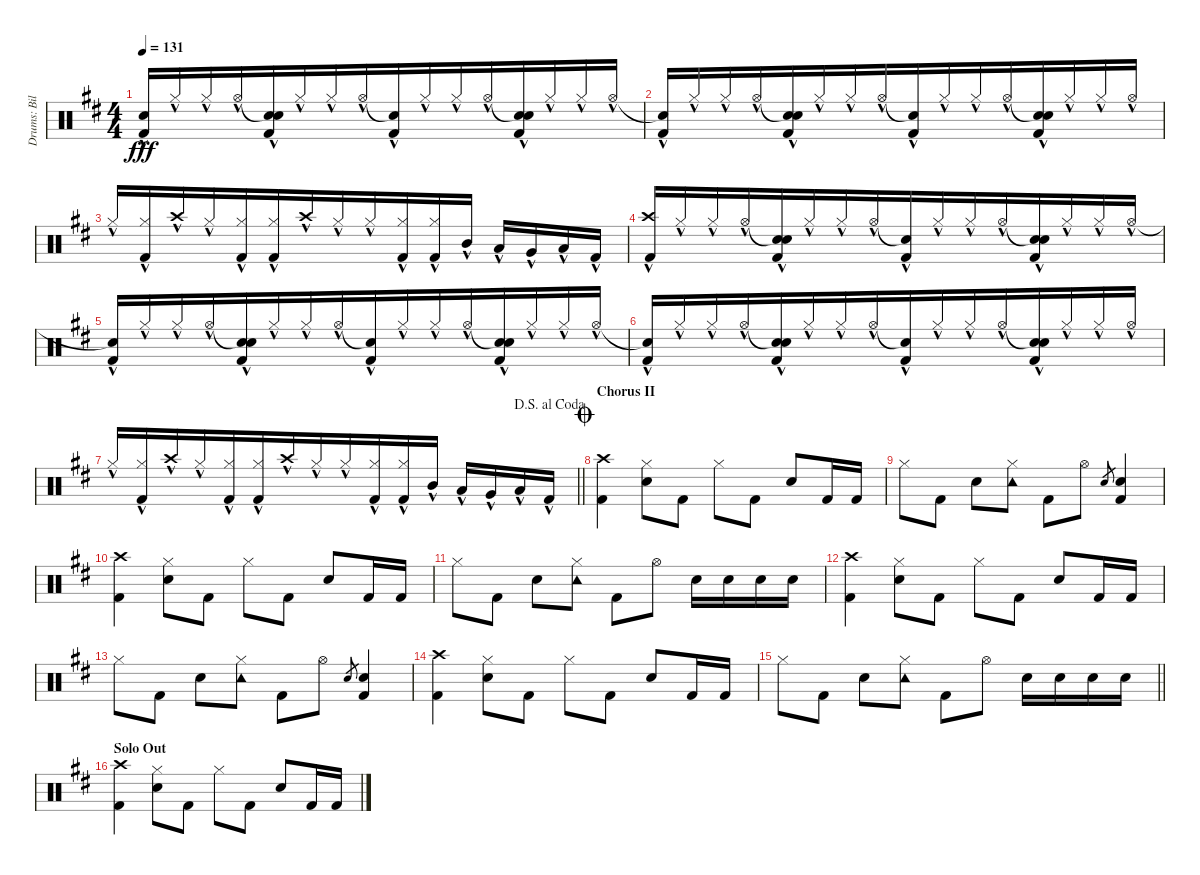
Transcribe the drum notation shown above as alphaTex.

\track ("Drums: Bill" "Drums: Bil") {instrument percussion}
\staff {score}
\articulation defaults
\ts (4 4)
\tempo 131
\clef neutral
\ks d
("Snare (hit)"{t} "Kick (hit) 2"{hac}).16{dy fff beam Up beam merge} "Hi-Hat (closed)"{hac}.16{beam Up beam merge} "Hi-Hat (closed)"{hac}.16{beam Up beam merge} "Hi-Hat (open)"{hac}.16{beam Up beam merge} ("Snare (hit)"{t} "Electric Snare (hit)"{hac} "Kick (hit) 2"{hac}).16{beam Up beam merge} "Hi-Hat (closed)"{hac}.16{beam Up beam merge} "Hi-Hat (closed)"{hac}.16{beam Up beam merge} "Hi-Hat (open)"{hac}.16{beam Up beam merge} ("Snare (hit)"{t} "Kick (hit) 2"{hac}).16{beam Up beam merge} "Hi-Hat (closed)"{hac}.16{beam Up beam merge} "Hi-Hat (closed)"{hac}.16{beam Up beam merge} "Hi-Hat (open)"{hac}.16{beam Up beam merge} ("Snare (hit)"{t} "Electric Snare (hit)" "Kick (hit) 2"{hac}).16{beam Up beam merge} "Hi-Hat (closed)"{hac}.16{beam Up beam merge} "Hi-Hat (closed)"{hac}.16{beam Up beam merge} "Hi-Hat (open)"{hac}.16{beam Up} |
("Snare (hit)"{t} "Kick (hit) 2"{hac}).16{beam Up beam merge} "Hi-Hat (closed)"{hac}.16{beam Up beam merge} "Hi-Hat (closed)"{hac}.16{beam Up beam merge} "Hi-Hat (open)"{hac}.16{beam Up beam merge} ("Snare (hit)"{t} "Electric Snare (hit)"{hac} "Kick (hit) 2"{hac}).16{beam Up beam merge} "Hi-Hat (closed)"{hac}.16{beam Up beam merge} "Hi-Hat (closed)"{hac}.16{beam Up beam merge} "Hi-Hat (open)"{hac}.16{beam Up beam merge} ("Snare (hit)"{t} "Kick (hit) 2"{hac}).16{beam Up beam merge} "Hi-Hat (closed)"{hac}.16{beam Up beam merge} "Hi-Hat (closed)"{hac}.16{beam Up beam merge} "Hi-Hat (open)"{hac}.16{beam Up beam merge} ("Snare (hit)"{t} "Electric Snare (hit)" "Kick (hit) 2"{hac}).16{beam Up beam merge} "Hi-Hat (closed)"{hac}.16{beam Up beam merge} "Hi-Hat (closed)"{hac}.16{beam Up beam merge} "Hi-Hat (open)"{hac}.16{beam Up} |
"Hi-Hat (closed)"{hac}.16{beam Up beam merge} ("Hi-Hat (closed)"{hac} "Kick (hit) 2"{hac}).16{beam Up} "Crash high (hit)"{hac}.16{beam merge} "Hi-Hat (closed)"{hac}.16{beam Up beam merge} ("Hi-Hat (closed)"{hac} "Kick (hit) 2"{hac}).16{beam Up beam merge} ("Hi-Hat (closed)"{hac} "Kick (hit) 2"{hac}).16{beam Up} "Crash high (hit)"{hac}.16{beam merge} "Hi-Hat (closed)"{hac}.16{beam Up beam merge} "Hi-Hat (closed)"{hac}.16{beam Up beam merge} ("Hi-Hat (closed)"{hac} "Kick (hit) 2"{hac}).16{beam Up beam merge} ("Hi-Hat (closed)"{hac} "Kick (hit) 2"{hac}).16{beam Up} "Mid Tom (hit)"{hac}.16 "Low Tom (hit)"{hac}.16 "Very Low Tom (hit)"{hac}.16 "Low Floor Tom (hit)"{hac}.16 "Kick (hit) 2"{hac}.16 |
("Crash high (hit)"{hac} "Kick (hit) 2"{hac}).16{beam Up beam merge} "Hi-Hat (closed)"{hac}.16{beam Up beam merge} "Hi-Hat (closed)"{hac}.16{beam Up beam merge} "Hi-Hat (open)"{hac}.16{beam Up beam merge} ("Snare (hit)"{t} "Electric Snare (hit)"{hac} "Kick (hit) 2"{hac}).16{beam Up beam merge} "Hi-Hat (closed)"{hac}.16{beam Up beam merge} "Hi-Hat (closed)"{hac}.16{beam Up beam merge} "Hi-Hat (open)"{hac}.16{beam Up beam merge} ("Snare (hit)"{t} "Kick (hit) 2"{hac}).16{beam Up beam merge} "Hi-Hat (closed)"{hac}.16{beam Up beam merge} "Hi-Hat (closed)"{hac}.16{beam Up beam merge} "Hi-Hat (open)"{hac}.16{beam Up beam merge} ("Snare (hit)"{t} "Electric Snare (hit)"{hac} "Kick (hit) 2"{hac}).16{beam Up beam merge} "Hi-Hat (closed)"{hac}.16{beam Up beam merge} "Hi-Hat (closed)"{hac}.16{beam Up beam merge} "Hi-Hat (open)"{hac}.16{beam Up} |
("Snare (hit)"{t} "Kick (hit) 2"{hac}).16{beam Up beam merge} "Hi-Hat (closed)"{hac}.16{beam Up beam merge} "Hi-Hat (closed)"{hac}.16{beam Up beam merge} "Hi-Hat (open)"{hac}.16{beam Up beam merge} ("Snare (hit)"{t} "Electric Snare (hit)"{hac} "Kick (hit) 2"{hac}).16{beam Up beam merge} "Hi-Hat (closed)"{hac}.16{beam Up beam merge} "Hi-Hat (closed)"{hac}.16{beam Up beam merge} "Hi-Hat (open)"{hac}.16{beam Up beam merge} ("Snare (hit)"{t} "Kick (hit) 2"{hac}).16{beam Up beam merge} "Hi-Hat (closed)"{hac}.16{beam Up beam merge} "Hi-Hat (closed)"{hac}.16{beam Up beam merge} "Hi-Hat (open)"{hac}.16{beam Up beam merge} ("Snare (hit)"{t} "Electric Snare (hit)" "Kick (hit) 2"{hac}).16{beam Up beam merge} "Hi-Hat (closed)"{hac}.16{beam Up beam merge} "Hi-Hat (closed)"{hac}.16{beam Up beam merge} "Hi-Hat (open)"{hac}.16{beam Up} |
("Snare (hit)"{t} "Kick (hit) 2"{hac}).16{beam Up beam merge} "Hi-Hat (closed)"{hac}.16{beam Up beam merge} "Hi-Hat (closed)"{hac}.16{beam Up beam merge} "Hi-Hat (open)"{hac}.16{beam Up beam merge} ("Snare (hit)"{t} "Electric Snare (hit)"{hac} "Kick (hit) 2"{hac}).16{beam Up beam merge} "Hi-Hat (closed)"{hac}.16{beam Up beam merge} "Hi-Hat (closed)"{hac}.16{beam Up beam merge} "Hi-Hat (open)"{hac}.16{beam Up beam merge} ("Snare (hit)"{t} "Kick (hit) 2"{hac}).16{beam Up beam merge} "Hi-Hat (closed)"{hac}.16{beam Up beam merge} "Hi-Hat (closed)"{hac}.16{beam Up beam merge} "Hi-Hat (open)"{hac}.16{beam Up beam merge} ("Snare (hit)"{t} "Electric Snare (hit)" "Kick (hit) 2"{hac}).16{beam Up beam merge} "Hi-Hat (closed)"{hac}.16{beam Up beam merge} "Hi-Hat (closed)"{hac}.16{beam Up beam merge} "Hi-Hat (open)"{hac}.16{beam Up} |
\jump dalsegnoalcoda
\barLineRight lightlight "Hi-Hat (closed)"{hac}.16{beam Up beam merge}
("Hi-Hat (closed)"{hac} "Kick (hit) 2"{hac}).16{beam Up} "Crash high (hit)"{hac}.16{beam merge} "Hi-Hat (closed)"{hac}.16{beam Up beam merge} ("Hi-Hat (closed)"{hac} "Kick (hit) 2"{hac}).16{beam Up beam merge} ("Hi-Hat (closed)"{hac} "Kick (hit) 2"{hac}).16{beam Up} "Crash high (hit)"{hac}.16{beam merge} "Hi-Hat (closed)"{hac}.16{beam Up beam merge} "Hi-Hat (closed)"{hac}.16{beam Up beam merge} ("Hi-Hat (closed)"{hac} "Kick (hit) 2"{hac}).16{beam Up beam merge} ("Hi-Hat (closed)"{hac} "Kick (hit) 2"{hac}).16{beam Up} "Mid Tom (hit)"{hac}.16 "Low Tom (hit)"{hac}.16 "Very Low Tom (hit)"{hac}.16 "Low Floor Tom (hit)"{hac}.16 "Kick (hit) 2"{hac}.16 |
\section ("" "Chorus II")
\jump coda
("Crash high (hit)" "Kick (hit) 2").4 ("Hi-Hat (closed)" "Electric Snare (hit)").8 "Kick (hit) 2".8 "Hi-Hat (closed)".8 "Kick (hit) 2".8 "Electric Snare (hit)".8 "Kick (hit) 2".16 "Kick (hit) 2".16 |
"Hi-Hat (closed)".8 "Kick (hit) 2".8 "Electric Snare (hit)".8 ("Tambourine (hit)" "Hi-Hat (closed)").8 "Kick (hit) 2".8 "Hi-Hat (open)".8 "Snare (hit) 2".8{gr} ("Electric Snare (hit)" "Kick (hit) 2").4 |
("Crash high (hit)" "Kick (hit) 2").4 ("Hi-Hat (closed)" "Electric Snare (hit)").8 "Kick (hit) 2".8 "Hi-Hat (closed)".8 "Kick (hit) 2".8 "Electric Snare (hit)".8 "Kick (hit) 2".16 "Kick (hit) 2".16 |
"Hi-Hat (closed)".8 "Kick (hit) 2".8 "Electric Snare (hit)".8 ("Tambourine (hit)" "Hi-Hat (closed)").8 "Kick (hit) 2".8 "Hi-Hat (open)".8 "Electric Snare (hit)".16 "Electric Snare (hit)".16 "Electric Snare (hit)".16 "Electric Snare (hit)".16 |
("Crash high (hit)" "Kick (hit) 2").4 ("Hi-Hat (closed)" "Electric Snare (hit)").8 "Kick (hit) 2".8 "Hi-Hat (closed)".8 "Kick (hit) 2".8 "Electric Snare (hit)".8 "Kick (hit) 2".16 "Kick (hit) 2".16 |
"Hi-Hat (closed)".8 "Kick (hit) 2".8 "Electric Snare (hit)".8 ("Tambourine (hit)" "Hi-Hat (closed)").8 "Kick (hit) 2".8 "Hi-Hat (open)".8 "Snare (hit) 2".8{gr} ("Electric Snare (hit)" "Kick (hit) 2").4 |
("Crash high (hit)" "Kick (hit) 2").4 ("Hi-Hat (closed)" "Electric Snare (hit)").8 "Kick (hit) 2".8 "Hi-Hat (closed)".8 "Kick (hit) 2".8 "Electric Snare (hit)".8 "Kick (hit) 2".16 "Kick (hit) 2".16 |
\barLineRight lightlight "Hi-Hat (closed)".8 "Kick (hit) 2".8 "Electric Snare (hit)".8
("Tambourine (hit)" "Hi-Hat (closed)").8 "Kick (hit) 2".8 "Hi-Hat (open)".8 "Electric Snare (hit)".16 "Electric Snare (hit)".16 "Electric Snare (hit)".16 "Electric Snare (hit)".16 |
\section ("" "Solo Out")
("Crash high (hit)" "Kick (hit) 2").4 ("Hi-Hat (closed)" "Electric Snare (hit)").8 "Kick (hit) 2".8 "Hi-Hat (closed)".8 "Kick (hit) 2".8 "Electric Snare (hit)".8 "Kick (hit) 2".16 "Kick (hit) 2".16
